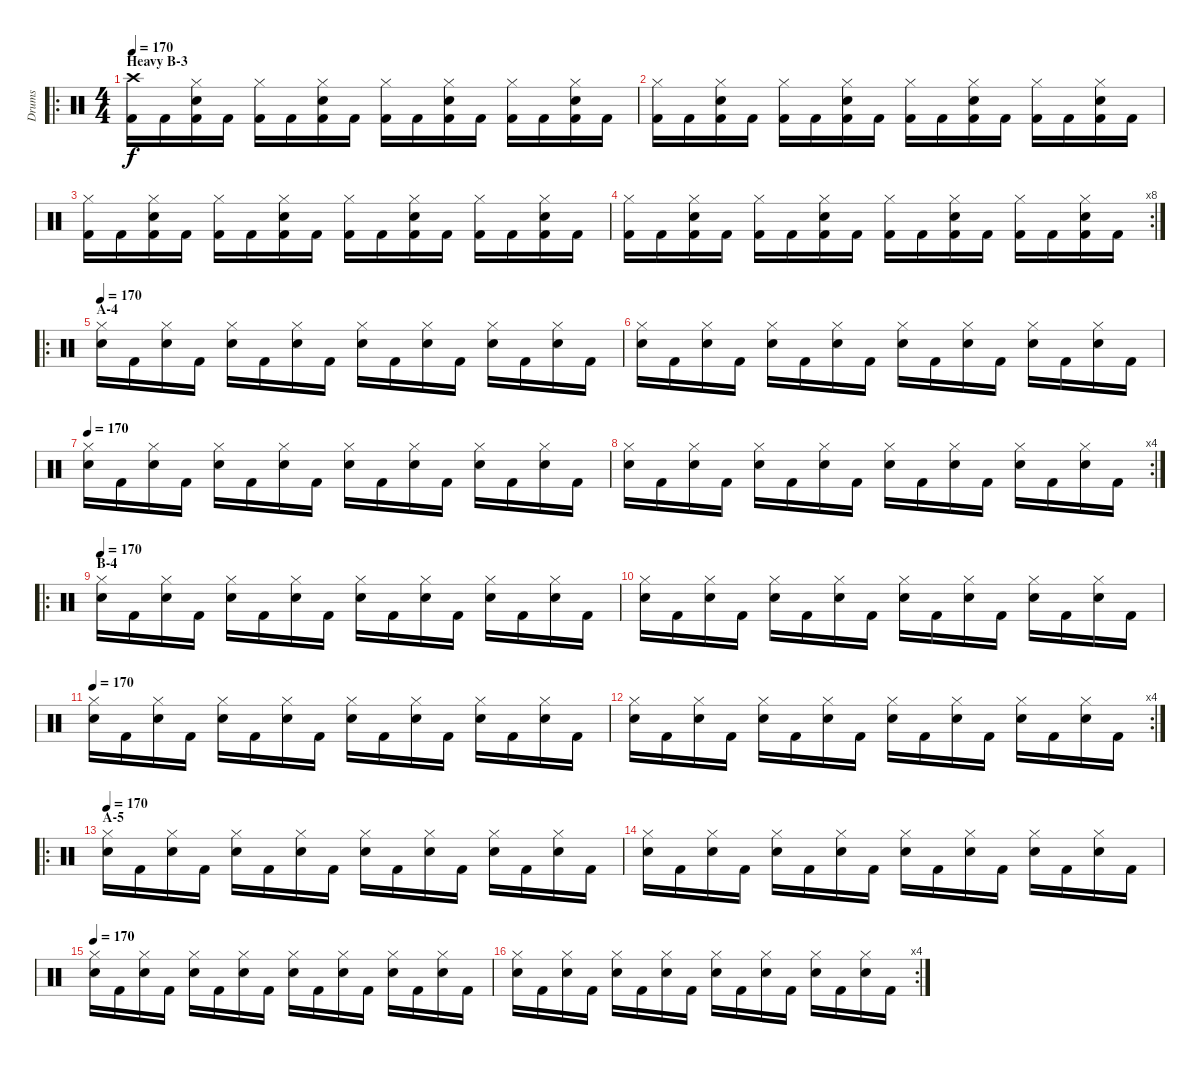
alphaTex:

\track ("Drums" "Drums") {instrument percussion}
\staff {score}
\articulation defaults
\ro
\ts (4 4)
\section ("" "Heavy B-3")
\tempo 170
\clef neutral
\ks c
("Crash high (hit)" "Kick (hit) 2").16{dy f} "Kick (hit) 2".16 ("Hi-Hat (closed)" "Electric Snare (hit)" "Kick (hit) 2").16 "Kick (hit) 2".16 ("Hi-Hat (closed)" "Kick (hit) 2").16 "Kick (hit) 2".16 ("Hi-Hat (closed)" "Electric Snare (hit)" "Kick (hit) 2").16 "Kick (hit) 2".16 ("Hi-Hat (closed)" "Kick (hit) 2").16 "Kick (hit) 2".16 ("Hi-Hat (closed)" "Electric Snare (hit)" "Kick (hit) 2").16 "Kick (hit) 2".16 ("Hi-Hat (closed)" "Kick (hit) 2").16 "Kick (hit) 2".16 ("Hi-Hat (closed)" "Electric Snare (hit)" "Kick (hit) 2").16 "Kick (hit) 2".16 |
("Hi-Hat (closed)" "Kick (hit) 2").16 "Kick (hit) 2".16 ("Hi-Hat (closed)" "Electric Snare (hit)" "Kick (hit) 2").16 "Kick (hit) 2".16 ("Hi-Hat (closed)" "Kick (hit) 2").16 "Kick (hit) 2".16 ("Hi-Hat (closed)" "Electric Snare (hit)" "Kick (hit) 2").16 "Kick (hit) 2".16 ("Hi-Hat (closed)" "Kick (hit) 2").16 "Kick (hit) 2".16 ("Hi-Hat (closed)" "Electric Snare (hit)" "Kick (hit) 2").16 "Kick (hit) 2".16 ("Hi-Hat (closed)" "Kick (hit) 2").16 "Kick (hit) 2".16 ("Hi-Hat (closed)" "Electric Snare (hit)" "Kick (hit) 2").16 "Kick (hit) 2".16 |
("Hi-Hat (closed)" "Kick (hit) 2").16 "Kick (hit) 2".16 ("Hi-Hat (closed)" "Electric Snare (hit)" "Kick (hit) 2").16 "Kick (hit) 2".16 ("Hi-Hat (closed)" "Kick (hit) 2").16 "Kick (hit) 2".16 ("Hi-Hat (closed)" "Electric Snare (hit)" "Kick (hit) 2").16 "Kick (hit) 2".16 ("Hi-Hat (closed)" "Kick (hit) 2").16 "Kick (hit) 2".16 ("Hi-Hat (closed)" "Electric Snare (hit)" "Kick (hit) 2").16 "Kick (hit) 2".16 ("Hi-Hat (closed)" "Kick (hit) 2").16 "Kick (hit) 2".16 ("Hi-Hat (closed)" "Electric Snare (hit)" "Kick (hit) 2").16 "Kick (hit) 2".16 |
\rc 8
("Hi-Hat (closed)" "Kick (hit) 2").16 "Kick (hit) 2".16 ("Hi-Hat (closed)" "Electric Snare (hit)" "Kick (hit) 2").16 "Kick (hit) 2".16 ("Hi-Hat (closed)" "Kick (hit) 2").16 "Kick (hit) 2".16 ("Hi-Hat (closed)" "Electric Snare (hit)" "Kick (hit) 2").16 "Kick (hit) 2".16 ("Hi-Hat (closed)" "Kick (hit) 2").16 "Kick (hit) 2".16 ("Hi-Hat (closed)" "Electric Snare (hit)" "Kick (hit) 2").16 "Kick (hit) 2".16 ("Hi-Hat (closed)" "Kick (hit) 2").16 "Kick (hit) 2".16 ("Hi-Hat (closed)" "Electric Snare (hit)" "Kick (hit) 2").16 "Kick (hit) 2".16 |
\ro
\section ("" "A-4")
\tempo 170
("Hi-Hat (closed)" "Electric Snare (hit)").16 "Kick (hit) 2".16 ("Hi-Hat (closed)" "Electric Snare (hit)").16 "Kick (hit) 2".16 ("Hi-Hat (closed)" "Electric Snare (hit)").16 "Kick (hit) 2".16 ("Hi-Hat (closed)" "Electric Snare (hit)").16 "Kick (hit) 2".16 ("Hi-Hat (closed)" "Electric Snare (hit)").16 "Kick (hit) 2".16 ("Hi-Hat (closed)" "Electric Snare (hit)").16 "Kick (hit) 2".16 ("Hi-Hat (closed)" "Electric Snare (hit)").16 "Kick (hit) 2".16 ("Hi-Hat (closed)" "Electric Snare (hit)").16 "Kick (hit) 2".16 |
("Hi-Hat (closed)" "Electric Snare (hit)").16 "Kick (hit) 2".16 ("Hi-Hat (closed)" "Electric Snare (hit)").16 "Kick (hit) 2".16 ("Hi-Hat (closed)" "Electric Snare (hit)").16 "Kick (hit) 2".16 ("Hi-Hat (closed)" "Electric Snare (hit)").16 "Kick (hit) 2".16 ("Hi-Hat (closed)" "Electric Snare (hit)").16 "Kick (hit) 2".16 ("Hi-Hat (closed)" "Electric Snare (hit)").16 "Kick (hit) 2".16 ("Hi-Hat (closed)" "Electric Snare (hit)").16 "Kick (hit) 2".16 ("Hi-Hat (closed)" "Electric Snare (hit)").16 "Kick (hit) 2".16 |
\tempo 170
("Hi-Hat (closed)" "Electric Snare (hit)").16 "Kick (hit) 2".16 ("Hi-Hat (closed)" "Electric Snare (hit)").16 "Kick (hit) 2".16 ("Hi-Hat (closed)" "Electric Snare (hit)").16 "Kick (hit) 2".16 ("Hi-Hat (closed)" "Electric Snare (hit)").16 "Kick (hit) 2".16 ("Hi-Hat (closed)" "Electric Snare (hit)").16 "Kick (hit) 2".16 ("Hi-Hat (closed)" "Electric Snare (hit)").16 "Kick (hit) 2".16 ("Hi-Hat (closed)" "Electric Snare (hit)").16 "Kick (hit) 2".16 ("Hi-Hat (closed)" "Electric Snare (hit)").16 "Kick (hit) 2".16 |
\rc 4
("Hi-Hat (closed)" "Electric Snare (hit)").16 "Kick (hit) 2".16 ("Hi-Hat (closed)" "Electric Snare (hit)").16 "Kick (hit) 2".16 ("Hi-Hat (closed)" "Electric Snare (hit)").16 "Kick (hit) 2".16 ("Hi-Hat (closed)" "Electric Snare (hit)").16 "Kick (hit) 2".16 ("Hi-Hat (closed)" "Electric Snare (hit)").16 "Kick (hit) 2".16 ("Hi-Hat (closed)" "Electric Snare (hit)").16 "Kick (hit) 2".16 ("Hi-Hat (closed)" "Electric Snare (hit)").16 "Kick (hit) 2".16 ("Hi-Hat (closed)" "Electric Snare (hit)").16 "Kick (hit) 2".16 |
\ro
\section ("" "B-4")
\tempo 170
("Hi-Hat (closed)" "Electric Snare (hit)").16 "Kick (hit) 2".16 ("Hi-Hat (closed)" "Electric Snare (hit)").16 "Kick (hit) 2".16 ("Hi-Hat (closed)" "Electric Snare (hit)").16 "Kick (hit) 2".16 ("Hi-Hat (closed)" "Electric Snare (hit)").16 "Kick (hit) 2".16 ("Hi-Hat (closed)" "Electric Snare (hit)").16 "Kick (hit) 2".16 ("Hi-Hat (closed)" "Electric Snare (hit)").16 "Kick (hit) 2".16 ("Hi-Hat (closed)" "Electric Snare (hit)").16 "Kick (hit) 2".16 ("Hi-Hat (closed)" "Electric Snare (hit)").16 "Kick (hit) 2".16 |
("Hi-Hat (closed)" "Electric Snare (hit)").16 "Kick (hit) 2".16 ("Hi-Hat (closed)" "Electric Snare (hit)").16 "Kick (hit) 2".16 ("Hi-Hat (closed)" "Electric Snare (hit)").16 "Kick (hit) 2".16 ("Hi-Hat (closed)" "Electric Snare (hit)").16 "Kick (hit) 2".16 ("Hi-Hat (closed)" "Electric Snare (hit)").16 "Kick (hit) 2".16 ("Hi-Hat (closed)" "Electric Snare (hit)").16 "Kick (hit) 2".16 ("Hi-Hat (closed)" "Electric Snare (hit)").16 "Kick (hit) 2".16 ("Hi-Hat (closed)" "Electric Snare (hit)").16 "Kick (hit) 2".16 |
\tempo 170
("Hi-Hat (closed)" "Electric Snare (hit)").16 "Kick (hit) 2".16 ("Hi-Hat (closed)" "Electric Snare (hit)").16 "Kick (hit) 2".16 ("Hi-Hat (closed)" "Electric Snare (hit)").16 "Kick (hit) 2".16 ("Hi-Hat (closed)" "Electric Snare (hit)").16 "Kick (hit) 2".16 ("Hi-Hat (closed)" "Electric Snare (hit)").16 "Kick (hit) 2".16 ("Hi-Hat (closed)" "Electric Snare (hit)").16 "Kick (hit) 2".16 ("Hi-Hat (closed)" "Electric Snare (hit)").16 "Kick (hit) 2".16 ("Hi-Hat (closed)" "Electric Snare (hit)").16 "Kick (hit) 2".16 |
\rc 4
("Hi-Hat (closed)" "Electric Snare (hit)").16 "Kick (hit) 2".16 ("Hi-Hat (closed)" "Electric Snare (hit)").16 "Kick (hit) 2".16 ("Hi-Hat (closed)" "Electric Snare (hit)").16 "Kick (hit) 2".16 ("Hi-Hat (closed)" "Electric Snare (hit)").16 "Kick (hit) 2".16 ("Hi-Hat (closed)" "Electric Snare (hit)").16 "Kick (hit) 2".16 ("Hi-Hat (closed)" "Electric Snare (hit)").16 "Kick (hit) 2".16 ("Hi-Hat (closed)" "Electric Snare (hit)").16 "Kick (hit) 2".16 ("Hi-Hat (closed)" "Electric Snare (hit)").16 "Kick (hit) 2".16 |
\ro
\section ("" "A-5")
\tempo 170
("Hi-Hat (closed)" "Electric Snare (hit)").16 "Kick (hit) 2".16 ("Hi-Hat (closed)" "Electric Snare (hit)").16 "Kick (hit) 2".16 ("Hi-Hat (closed)" "Electric Snare (hit)").16 "Kick (hit) 2".16 ("Hi-Hat (closed)" "Electric Snare (hit)").16 "Kick (hit) 2".16 ("Hi-Hat (closed)" "Electric Snare (hit)").16 "Kick (hit) 2".16 ("Hi-Hat (closed)" "Electric Snare (hit)").16 "Kick (hit) 2".16 ("Hi-Hat (closed)" "Electric Snare (hit)").16 "Kick (hit) 2".16 ("Hi-Hat (closed)" "Electric Snare (hit)").16 "Kick (hit) 2".16 |
("Hi-Hat (closed)" "Electric Snare (hit)").16 "Kick (hit) 2".16 ("Hi-Hat (closed)" "Electric Snare (hit)").16 "Kick (hit) 2".16 ("Hi-Hat (closed)" "Electric Snare (hit)").16 "Kick (hit) 2".16 ("Hi-Hat (closed)" "Electric Snare (hit)").16 "Kick (hit) 2".16 ("Hi-Hat (closed)" "Electric Snare (hit)").16 "Kick (hit) 2".16 ("Hi-Hat (closed)" "Electric Snare (hit)").16 "Kick (hit) 2".16 ("Hi-Hat (closed)" "Electric Snare (hit)").16 "Kick (hit) 2".16 ("Hi-Hat (closed)" "Electric Snare (hit)").16 "Kick (hit) 2".16 |
\tempo 170
("Hi-Hat (closed)" "Electric Snare (hit)").16 "Kick (hit) 2".16 ("Hi-Hat (closed)" "Electric Snare (hit)").16 "Kick (hit) 2".16 ("Hi-Hat (closed)" "Electric Snare (hit)").16 "Kick (hit) 2".16 ("Hi-Hat (closed)" "Electric Snare (hit)").16 "Kick (hit) 2".16 ("Hi-Hat (closed)" "Electric Snare (hit)").16 "Kick (hit) 2".16 ("Hi-Hat (closed)" "Electric Snare (hit)").16 "Kick (hit) 2".16 ("Hi-Hat (closed)" "Electric Snare (hit)").16 "Kick (hit) 2".16 ("Hi-Hat (closed)" "Electric Snare (hit)").16 "Kick (hit) 2".16 |
\rc 4
("Hi-Hat (closed)" "Electric Snare (hit)").16 "Kick (hit) 2".16 ("Hi-Hat (closed)" "Electric Snare (hit)").16 "Kick (hit) 2".16 ("Hi-Hat (closed)" "Electric Snare (hit)").16 "Kick (hit) 2".16 ("Hi-Hat (closed)" "Electric Snare (hit)").16 "Kick (hit) 2".16 ("Hi-Hat (closed)" "Electric Snare (hit)").16 "Kick (hit) 2".16 ("Hi-Hat (closed)" "Electric Snare (hit)").16 "Kick (hit) 2".16 ("Hi-Hat (closed)" "Electric Snare (hit)").16 "Kick (hit) 2".16 ("Hi-Hat (closed)" "Electric Snare (hit)").16 "Kick (hit) 2".16
